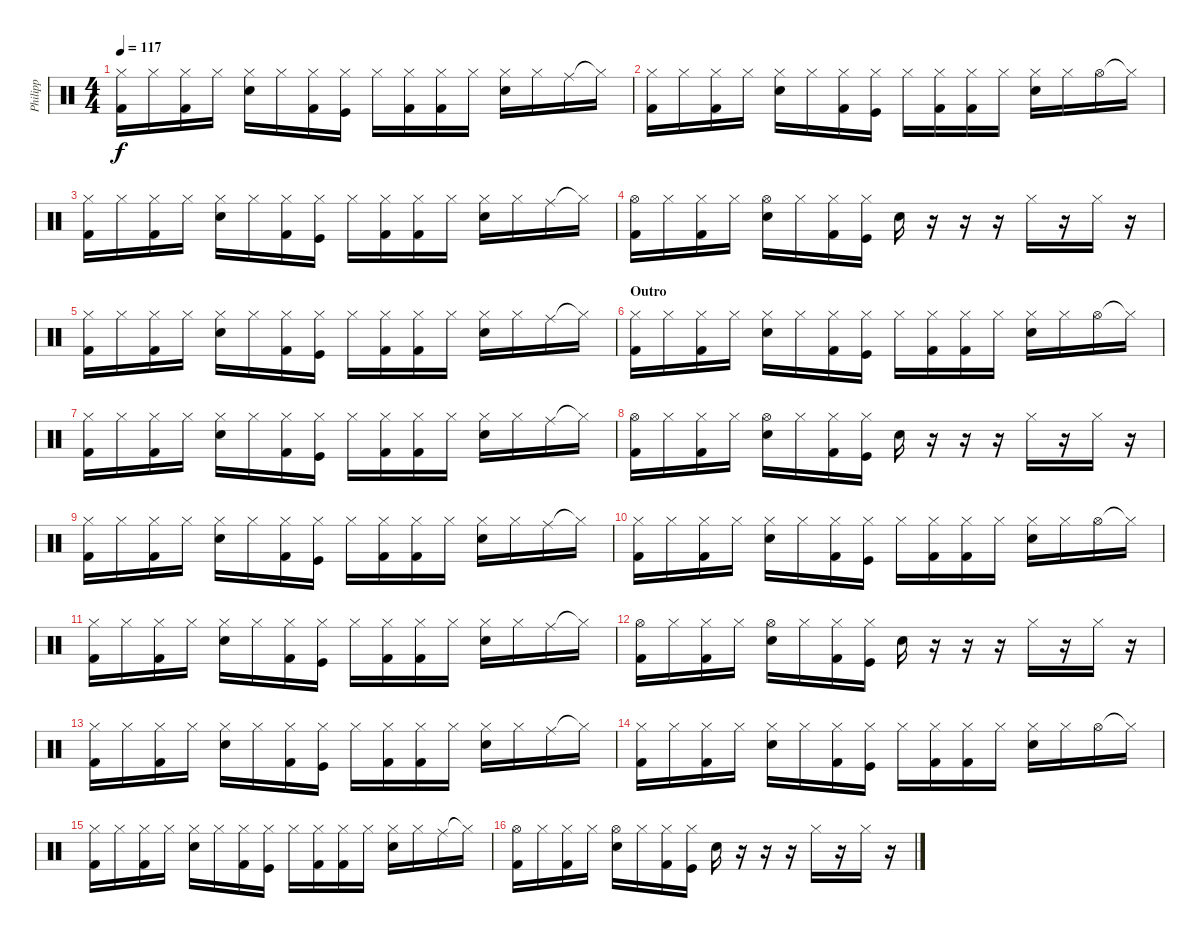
\track ("Philipp" "Philipp") {instrument percussion}
\staff {score}
\articulation defaults
\ts (4 4)
\tempo 117
\clef neutral
\ks c
("Hi-Hat (closed)" "Kick (hit) 2").16{dy f} "Hi-Hat (closed)".16 ("Hi-Hat (closed)" "Kick (hit) 2").16 "Hi-Hat (closed)".16 ("Hi-Hat (closed)" "Electric Snare (hit)").16 "Hi-Hat (closed)".16 ("Hi-Hat (closed)" "Kick (hit) 2").16 ("Hi-Hat (closed)" "Kick (hit)").16 "Hi-Hat (closed)".16 ("Hi-Hat (closed)" "Kick (hit) 2").16 ("Hi-Hat (closed)" "Kick (hit) 2").16 "Hi-Hat (closed)".16 ("Hi-Hat (closed)" "Electric Snare (hit)").16 "Hi-Hat (closed)".16 "Ride (middle)".16 "Hi-Hat (closed)"{t}.16 |
("Hi-Hat (closed)" "Kick (hit) 2").16 "Hi-Hat (closed)".16 ("Hi-Hat (closed)" "Kick (hit) 2").16 "Hi-Hat (closed)".16 ("Hi-Hat (closed)" "Electric Snare (hit)").16 "Hi-Hat (closed)".16 ("Hi-Hat (closed)" "Kick (hit) 2").16 ("Hi-Hat (closed)" "Kick (hit)").16 "Hi-Hat (closed)".16 ("Hi-Hat (closed)" "Kick (hit) 2").16 ("Hi-Hat (closed)" "Kick (hit) 2").16 "Hi-Hat (closed)".16 ("Hi-Hat (closed)" "Electric Snare (hit)").16 "Hi-Hat (closed)".16 "Hi-Hat (open)".16 "Hi-Hat (closed)"{t}.16 |
("Hi-Hat (closed)" "Kick (hit) 2").16 "Hi-Hat (closed)".16 ("Hi-Hat (closed)" "Kick (hit) 2").16 "Hi-Hat (closed)".16 ("Hi-Hat (closed)" "Electric Snare (hit)").16 "Hi-Hat (closed)".16 ("Hi-Hat (closed)" "Kick (hit) 2").16 ("Hi-Hat (closed)" "Kick (hit)").16 "Hi-Hat (closed)".16 ("Hi-Hat (closed)" "Kick (hit) 2").16 ("Hi-Hat (closed)" "Kick (hit) 2").16 "Hi-Hat (closed)".16 ("Hi-Hat (closed)" "Electric Snare (hit)").16 "Hi-Hat (closed)".16 "Ride (middle)".16 "Hi-Hat (closed)"{t}.16 |
("Hi-Hat (open)" "Kick (hit) 2").16 "Hi-Hat (closed)".16 ("Hi-Hat (closed)" "Kick (hit) 2").16 "Hi-Hat (closed)".16 ("Hi-Hat (open)" "Electric Snare (hit)").16 "Hi-Hat (closed)".16 ("Hi-Hat (closed)" "Kick (hit) 2").16 ("Hi-Hat (closed)" "Kick (hit)").16 "Electric Snare (hit)".16 r.16 r.16 r.16 "Hi-Hat (closed)".16 r.16 "Hi-Hat (closed)".16 r.16 |
("Hi-Hat (closed)" "Kick (hit) 2").16 "Hi-Hat (closed)".16 ("Hi-Hat (closed)" "Kick (hit) 2").16 "Hi-Hat (closed)".16 ("Hi-Hat (closed)" "Electric Snare (hit)").16 "Hi-Hat (closed)".16 ("Hi-Hat (closed)" "Kick (hit) 2").16 ("Hi-Hat (closed)" "Kick (hit)").16 "Hi-Hat (closed)".16 ("Hi-Hat (closed)" "Kick (hit) 2").16 ("Hi-Hat (closed)" "Kick (hit) 2").16 "Hi-Hat (closed)".16 ("Hi-Hat (closed)" "Electric Snare (hit)").16 "Hi-Hat (closed)".16 "Ride (middle)".16 "Hi-Hat (closed)"{t}.16 |
\section ("" "Outro")
("Hi-Hat (closed)" "Kick (hit) 2").16 "Hi-Hat (closed)".16 ("Hi-Hat (closed)" "Kick (hit) 2").16 "Hi-Hat (closed)".16 ("Hi-Hat (closed)" "Electric Snare (hit)").16 "Hi-Hat (closed)".16 ("Hi-Hat (closed)" "Kick (hit) 2").16 ("Hi-Hat (closed)" "Kick (hit)").16 "Hi-Hat (closed)".16 ("Hi-Hat (closed)" "Kick (hit) 2").16 ("Hi-Hat (closed)" "Kick (hit) 2").16 "Hi-Hat (closed)".16 ("Hi-Hat (closed)" "Electric Snare (hit)").16 "Hi-Hat (closed)".16 "Hi-Hat (open)".16 "Hi-Hat (closed)"{t}.16 |
("Hi-Hat (closed)" "Kick (hit) 2").16 "Hi-Hat (closed)".16 ("Hi-Hat (closed)" "Kick (hit) 2").16 "Hi-Hat (closed)".16 ("Hi-Hat (closed)" "Electric Snare (hit)").16 "Hi-Hat (closed)".16 ("Hi-Hat (closed)" "Kick (hit) 2").16 ("Hi-Hat (closed)" "Kick (hit)").16 "Hi-Hat (closed)".16 ("Hi-Hat (closed)" "Kick (hit) 2").16 ("Hi-Hat (closed)" "Kick (hit) 2").16 "Hi-Hat (closed)".16 ("Hi-Hat (closed)" "Electric Snare (hit)").16 "Hi-Hat (closed)".16 "Ride (middle)".16 "Hi-Hat (closed)"{t}.16 |
("Hi-Hat (open)" "Kick (hit) 2").16 "Hi-Hat (closed)".16 ("Hi-Hat (closed)" "Kick (hit) 2").16 "Hi-Hat (closed)".16 ("Hi-Hat (open)" "Electric Snare (hit)").16 "Hi-Hat (closed)".16 ("Hi-Hat (closed)" "Kick (hit) 2").16 ("Hi-Hat (closed)" "Kick (hit)").16 "Electric Snare (hit)".16 r.16 r.16 r.16 "Hi-Hat (closed)".16 r.16 "Hi-Hat (closed)".16 r.16 |
("Hi-Hat (closed)" "Kick (hit) 2").16 "Hi-Hat (closed)".16 ("Hi-Hat (closed)" "Kick (hit) 2").16 "Hi-Hat (closed)".16 ("Hi-Hat (closed)" "Electric Snare (hit)").16 "Hi-Hat (closed)".16 ("Hi-Hat (closed)" "Kick (hit) 2").16 ("Hi-Hat (closed)" "Kick (hit)").16 "Hi-Hat (closed)".16 ("Hi-Hat (closed)" "Kick (hit) 2").16 ("Hi-Hat (closed)" "Kick (hit) 2").16 "Hi-Hat (closed)".16 ("Hi-Hat (closed)" "Electric Snare (hit)").16 "Hi-Hat (closed)".16 "Ride (middle)".16 "Hi-Hat (closed)"{t}.16 |
("Hi-Hat (closed)" "Kick (hit) 2").16 "Hi-Hat (closed)".16 ("Hi-Hat (closed)" "Kick (hit) 2").16 "Hi-Hat (closed)".16 ("Hi-Hat (closed)" "Electric Snare (hit)").16 "Hi-Hat (closed)".16 ("Hi-Hat (closed)" "Kick (hit) 2").16 ("Hi-Hat (closed)" "Kick (hit)").16 "Hi-Hat (closed)".16 ("Hi-Hat (closed)" "Kick (hit) 2").16 ("Hi-Hat (closed)" "Kick (hit) 2").16 "Hi-Hat (closed)".16 ("Hi-Hat (closed)" "Electric Snare (hit)").16 "Hi-Hat (closed)".16 "Hi-Hat (open)".16 "Hi-Hat (closed)"{t}.16 |
("Hi-Hat (closed)" "Kick (hit) 2").16 "Hi-Hat (closed)".16 ("Hi-Hat (closed)" "Kick (hit) 2").16 "Hi-Hat (closed)".16 ("Hi-Hat (closed)" "Electric Snare (hit)").16 "Hi-Hat (closed)".16 ("Hi-Hat (closed)" "Kick (hit) 2").16 ("Hi-Hat (closed)" "Kick (hit)").16 "Hi-Hat (closed)".16 ("Hi-Hat (closed)" "Kick (hit) 2").16 ("Hi-Hat (closed)" "Kick (hit) 2").16 "Hi-Hat (closed)".16 ("Hi-Hat (closed)" "Electric Snare (hit)").16 "Hi-Hat (closed)".16 "Ride (middle)".16 "Hi-Hat (closed)"{t}.16 |
("Hi-Hat (open)" "Kick (hit) 2").16 "Hi-Hat (closed)".16 ("Hi-Hat (closed)" "Kick (hit) 2").16 "Hi-Hat (closed)".16 ("Hi-Hat (open)" "Electric Snare (hit)").16 "Hi-Hat (closed)".16 ("Hi-Hat (closed)" "Kick (hit) 2").16 ("Hi-Hat (closed)" "Kick (hit)").16 "Electric Snare (hit)".16 r.16 r.16 r.16 "Hi-Hat (closed)".16 r.16 "Hi-Hat (closed)".16 r.16 |
("Hi-Hat (closed)" "Kick (hit) 2").16 "Hi-Hat (closed)".16 ("Hi-Hat (closed)" "Kick (hit) 2").16 "Hi-Hat (closed)".16 ("Hi-Hat (closed)" "Electric Snare (hit)").16 "Hi-Hat (closed)".16 ("Hi-Hat (closed)" "Kick (hit) 2").16 ("Hi-Hat (closed)" "Kick (hit)").16 "Hi-Hat (closed)".16 ("Hi-Hat (closed)" "Kick (hit) 2").16 ("Hi-Hat (closed)" "Kick (hit) 2").16 "Hi-Hat (closed)".16 ("Hi-Hat (closed)" "Electric Snare (hit)").16 "Hi-Hat (closed)".16 "Ride (middle)".16 "Hi-Hat (closed)"{t}.16 |
("Hi-Hat (closed)" "Kick (hit) 2").16 "Hi-Hat (closed)".16 ("Hi-Hat (closed)" "Kick (hit) 2").16 "Hi-Hat (closed)".16 ("Hi-Hat (closed)" "Electric Snare (hit)").16 "Hi-Hat (closed)".16 ("Hi-Hat (closed)" "Kick (hit) 2").16 ("Hi-Hat (closed)" "Kick (hit)").16 "Hi-Hat (closed)".16 ("Hi-Hat (closed)" "Kick (hit) 2").16 ("Hi-Hat (closed)" "Kick (hit) 2").16 "Hi-Hat (closed)".16 ("Hi-Hat (closed)" "Electric Snare (hit)").16 "Hi-Hat (closed)".16 "Hi-Hat (open)".16 "Hi-Hat (closed)"{t}.16 |
("Hi-Hat (closed)" "Kick (hit) 2").16 "Hi-Hat (closed)".16 ("Hi-Hat (closed)" "Kick (hit) 2").16 "Hi-Hat (closed)".16 ("Hi-Hat (closed)" "Electric Snare (hit)").16 "Hi-Hat (closed)".16 ("Hi-Hat (closed)" "Kick (hit) 2").16 ("Hi-Hat (closed)" "Kick (hit)").16 "Hi-Hat (closed)".16 ("Hi-Hat (closed)" "Kick (hit) 2").16 ("Hi-Hat (closed)" "Kick (hit) 2").16 "Hi-Hat (closed)".16 ("Hi-Hat (closed)" "Electric Snare (hit)").16 "Hi-Hat (closed)".16 "Ride (middle)".16 "Hi-Hat (closed)"{t}.16 |
("Hi-Hat (open)" "Kick (hit) 2").16{volume 7} "Hi-Hat (closed)".16 ("Hi-Hat (closed)" "Kick (hit) 2").16 "Hi-Hat (closed)".16 ("Hi-Hat (open)" "Electric Snare (hit)").16 "Hi-Hat (closed)".16 ("Hi-Hat (closed)" "Kick (hit) 2").16 ("Hi-Hat (closed)" "Kick (hit)").16 "Electric Snare (hit)".16 r.16 r.16 r.16 "Hi-Hat (closed)".16 r.16 "Hi-Hat (closed)".16 r.16
